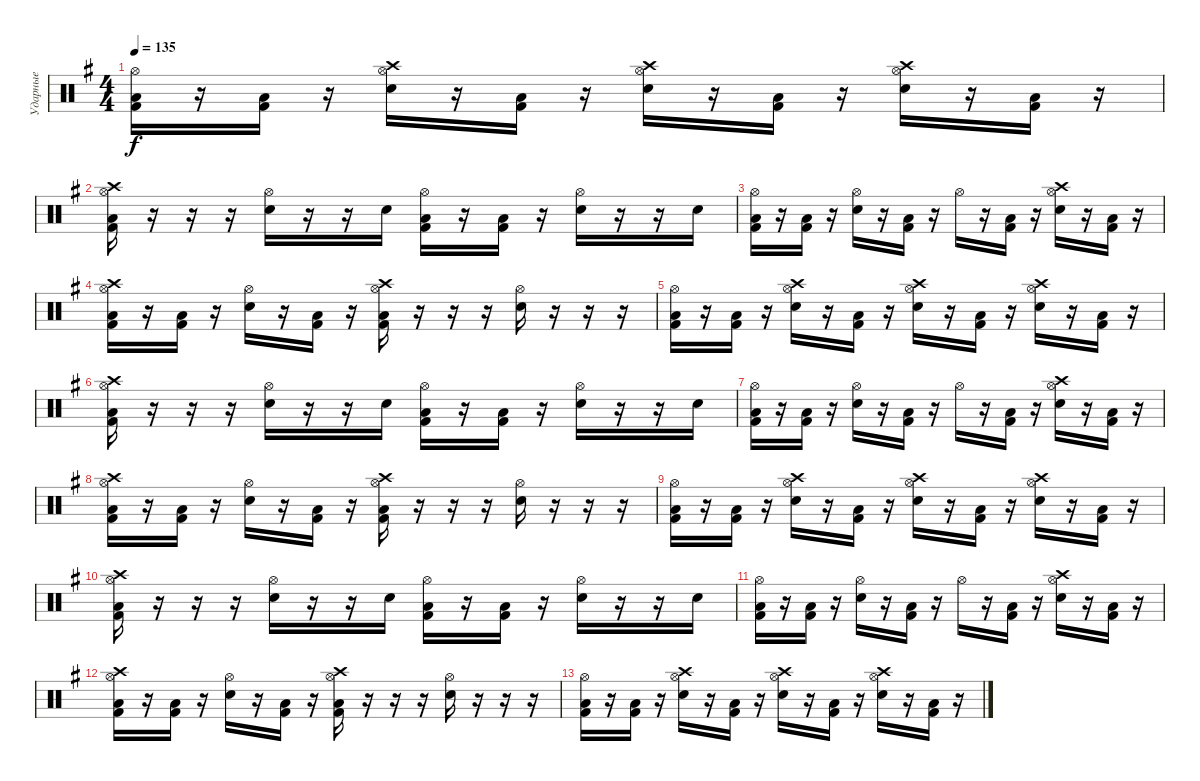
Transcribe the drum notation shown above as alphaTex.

\track ("Ударные" "Ударные") {instrument percussion}
\staff {score}
\articulation defaults
\ts (4 4)
\tempo 135
\clef neutral
\ks eminor
("Hi-Hat (open)" "Low Floor Tom (hit)" "Kick (hit) 2").16{dy f} r.16 ("Low Floor Tom (hit)" "Kick (hit) 2").16 r.16 ("Crash high (hit)" "Hi-Hat (open)" "Electric Snare (hit)").16 r.16 ("Low Floor Tom (hit)" "Kick (hit) 2").16 r.16 ("Crash high (hit)" "Hi-Hat (open)" "Electric Snare (hit)").16 r.16 ("Low Floor Tom (hit)" "Kick (hit) 2").16 r.16 ("Crash high (hit)" "Hi-Hat (open)" "Electric Snare (hit)").16 r.16 ("Low Floor Tom (hit)" "Kick (hit) 2").16 r.16 |
("Crash high (hit)" "Hi-Hat (open)" "Low Floor Tom (hit)" "Kick (hit) 2").16 r.16 r.16 r.16 ("Hi-Hat (open)" "Electric Snare (hit)").16 r.16 r.16 "Electric Snare (hit)".16 ("Hi-Hat (open)" "Low Floor Tom (hit)" "Kick (hit) 2").16 r.16 ("Low Floor Tom (hit)" "Kick (hit) 2").16 r.16 ("Hi-Hat (open)" "Electric Snare (hit)").16 r.16 r.16 "Electric Snare (hit)".16 |
("Hi-Hat (open)" "Low Floor Tom (hit)" "Kick (hit) 2").16 r.16 ("Low Floor Tom (hit)" "Kick (hit) 2").16 r.16 ("Hi-Hat (open)" "Electric Snare (hit)").16 r.16 ("Low Floor Tom (hit)" "Kick (hit) 2").16 r.16 "Hi-Hat (open)".16 r.16 ("Low Floor Tom (hit)" "Kick (hit) 2").16 r.16 ("Crash high (hit)" "Hi-Hat (open)" "Electric Snare (hit)").16 r.16 ("Low Floor Tom (hit)" "Kick (hit) 2").16 r.16 |
("Crash high (hit)" "Hi-Hat (open)" "Low Floor Tom (hit)" "Kick (hit) 2").16 r.16 ("Low Floor Tom (hit)" "Kick (hit) 2").16 r.16 ("Hi-Hat (open)" "Electric Snare (hit)").16 r.16 ("Low Floor Tom (hit)" "Kick (hit) 2").16 r.16 ("Crash high (hit)" "Hi-Hat (open)" "Low Floor Tom (hit)" "Kick (hit) 2").16 r.16 r.16 r.16 ("Hi-Hat (open)" "Electric Snare (hit)").16 r.16 r.16 r.16 |
("Hi-Hat (open)" "Low Floor Tom (hit)" "Kick (hit) 2").16 r.16 ("Low Floor Tom (hit)" "Kick (hit) 2").16 r.16 ("Crash high (hit)" "Hi-Hat (open)" "Electric Snare (hit)").16 r.16 ("Low Floor Tom (hit)" "Kick (hit) 2").16 r.16 ("Crash high (hit)" "Hi-Hat (open)" "Electric Snare (hit)").16 r.16 ("Low Floor Tom (hit)" "Kick (hit) 2").16 r.16 ("Crash high (hit)" "Hi-Hat (open)" "Electric Snare (hit)").16 r.16 ("Low Floor Tom (hit)" "Kick (hit) 2").16 r.16 |
("Crash high (hit)" "Hi-Hat (open)" "Low Floor Tom (hit)" "Kick (hit) 2").16 r.16 r.16 r.16 ("Hi-Hat (open)" "Electric Snare (hit)").16 r.16 r.16 "Electric Snare (hit)".16 ("Hi-Hat (open)" "Low Floor Tom (hit)" "Kick (hit) 2").16 r.16 ("Low Floor Tom (hit)" "Kick (hit) 2").16 r.16 ("Hi-Hat (open)" "Electric Snare (hit)").16 r.16 r.16 "Electric Snare (hit)".16 |
("Hi-Hat (open)" "Low Floor Tom (hit)" "Kick (hit) 2").16 r.16 ("Low Floor Tom (hit)" "Kick (hit) 2").16 r.16 ("Hi-Hat (open)" "Electric Snare (hit)").16 r.16 ("Low Floor Tom (hit)" "Kick (hit) 2").16 r.16 "Hi-Hat (open)".16 r.16 ("Low Floor Tom (hit)" "Kick (hit) 2").16 r.16 ("Crash high (hit)" "Hi-Hat (open)" "Electric Snare (hit)").16 r.16 ("Low Floor Tom (hit)" "Kick (hit) 2").16 r.16 |
("Crash high (hit)" "Hi-Hat (open)" "Low Floor Tom (hit)" "Kick (hit) 2").16 r.16 ("Low Floor Tom (hit)" "Kick (hit) 2").16 r.16 ("Hi-Hat (open)" "Electric Snare (hit)").16 r.16 ("Low Floor Tom (hit)" "Kick (hit) 2").16 r.16 ("Crash high (hit)" "Hi-Hat (open)" "Low Floor Tom (hit)" "Kick (hit) 2").16 r.16 r.16 r.16 ("Hi-Hat (open)" "Electric Snare (hit)").16 r.16 r.16 r.16 |
("Hi-Hat (open)" "Low Floor Tom (hit)" "Kick (hit) 2").16 r.16 ("Low Floor Tom (hit)" "Kick (hit) 2").16 r.16 ("Crash high (hit)" "Hi-Hat (open)" "Electric Snare (hit)").16 r.16 ("Low Floor Tom (hit)" "Kick (hit) 2").16 r.16 ("Crash high (hit)" "Hi-Hat (open)" "Electric Snare (hit)").16 r.16 ("Low Floor Tom (hit)" "Kick (hit) 2").16 r.16 ("Crash high (hit)" "Hi-Hat (open)" "Electric Snare (hit)").16 r.16 ("Low Floor Tom (hit)" "Kick (hit) 2").16 r.16 |
("Crash high (hit)" "Hi-Hat (open)" "Low Floor Tom (hit)" "Kick (hit) 2").16 r.16 r.16 r.16 ("Hi-Hat (open)" "Electric Snare (hit)").16 r.16 r.16 "Electric Snare (hit)".16 ("Hi-Hat (open)" "Low Floor Tom (hit)" "Kick (hit) 2").16 r.16 ("Low Floor Tom (hit)" "Kick (hit) 2").16 r.16 ("Hi-Hat (open)" "Electric Snare (hit)").16 r.16 r.16 "Electric Snare (hit)".16 |
("Hi-Hat (open)" "Low Floor Tom (hit)" "Kick (hit) 2").16 r.16 ("Low Floor Tom (hit)" "Kick (hit) 2").16 r.16 ("Hi-Hat (open)" "Electric Snare (hit)").16 r.16 ("Low Floor Tom (hit)" "Kick (hit) 2").16 r.16 "Hi-Hat (open)".16 r.16 ("Low Floor Tom (hit)" "Kick (hit) 2").16 r.16 ("Crash high (hit)" "Hi-Hat (open)" "Electric Snare (hit)").16 r.16 ("Low Floor Tom (hit)" "Kick (hit) 2").16 r.16 |
("Crash high (hit)" "Hi-Hat (open)" "Low Floor Tom (hit)" "Kick (hit) 2").16 r.16 ("Low Floor Tom (hit)" "Kick (hit) 2").16 r.16 ("Hi-Hat (open)" "Electric Snare (hit)").16 r.16 ("Low Floor Tom (hit)" "Kick (hit) 2").16 r.16 ("Crash high (hit)" "Hi-Hat (open)" "Low Floor Tom (hit)" "Kick (hit) 2").16 r.16 r.16 r.16 ("Hi-Hat (open)" "Electric Snare (hit)").16 r.16 r.16 r.16 |
("Hi-Hat (open)" "Low Floor Tom (hit)" "Kick (hit) 2").16 r.16 ("Low Floor Tom (hit)" "Kick (hit) 2").16 r.16 ("Crash high (hit)" "Hi-Hat (open)" "Electric Snare (hit)").16 r.16 ("Low Floor Tom (hit)" "Kick (hit) 2").16 r.16 ("Crash high (hit)" "Hi-Hat (open)" "Electric Snare (hit)").16 r.16 ("Low Floor Tom (hit)" "Kick (hit) 2").16 r.16 ("Crash high (hit)" "Hi-Hat (open)" "Electric Snare (hit)").16 r.16 ("Low Floor Tom (hit)" "Kick (hit) 2").16 r.16
